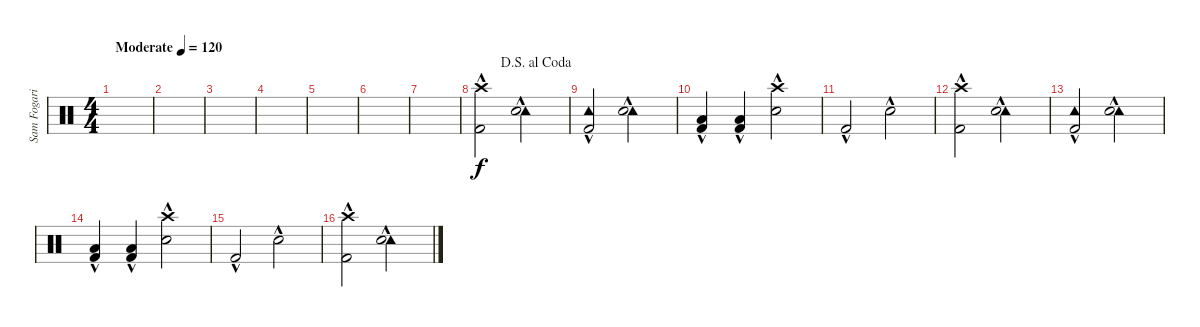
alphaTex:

\track ("Sam Fogarino" "Sam Fogari") {instrument percussion}
\staff {score}
\articulation defaults
\ts (4 4)
\tempo (120 "Moderate")
\clef neutral
\ks c
|
|
|
|
|
|
|
\jump dalsegnoalcoda
("Crash high (hit)" "Kick (hit) 2"{hac}).2 ("Tambourine (hit)" "Snare (hit) 2"{hac}).2 |
("Tambourine (hit)"{hac} "Kick (hit) 2"{hac}).2 ("Tambourine (hit)"{hac} "Snare (hit) 2"{hac}).2 |
("Kick (hit) 2"{hac} "Low Floor Tom (hit)").4 ("Kick (hit) 2"{hac} "Low Floor Tom (hit)").4 ("Crash high (hit)"{hac} "Snare (hit) 2"{hac}).2 |
"Kick (hit) 2"{hac}.2 "Snare (hit) 2"{hac}.2 |
("Crash high (hit)"{hac} "Kick (hit) 2"{hac}).2 ("Tambourine (hit)"{hac} "Snare (hit) 2"{hac}).2 |
("Tambourine (hit)"{hac} "Kick (hit) 2"{hac}).2 ("Tambourine (hit)"{hac} "Snare (hit) 2"{hac}).2 |
("Kick (hit) 2"{hac} "Low Floor Tom (hit)"{hac}).4 ("Kick (hit) 2"{hac} "Low Floor Tom (hit)"{hac}).4 ("Crash high (hit)"{hac} "Snare (hit) 2"{hac}).2 |
"Kick (hit) 2"{hac}.2 "Snare (hit) 2"{hac}.2 |
("Crash high (hit)"{hac} "Kick (hit) 2"{hac}).2 ("Tambourine (hit)"{hac} "Snare (hit) 2"{hac}).2
